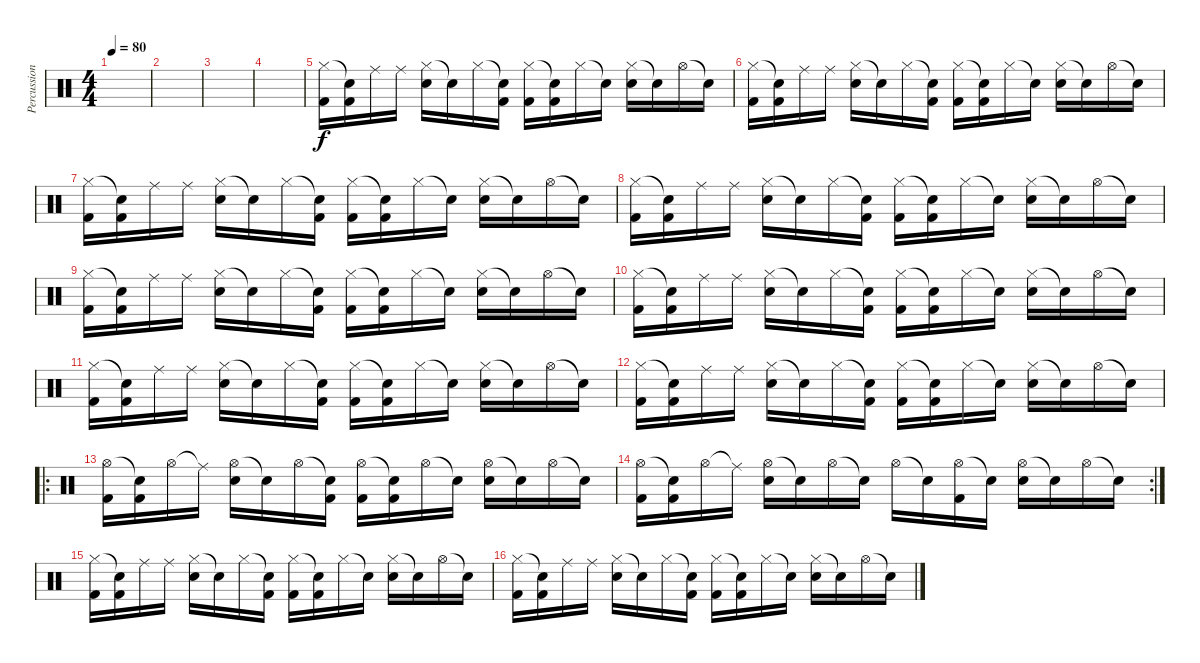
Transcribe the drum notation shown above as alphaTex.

\track ("Percussion" "Percussion") {instrument percussion}
\staff {score}
\articulation defaults
\ts (4 4)
\tempo 80
\clef neutral
\ks c
|
|
|
|
("Hi-Hat (closed)" "Kick (hit) 2").16 ("Snare (hit)"{t} "Kick (hit) 2").16 "Ride (middle)".16 "Ride (middle)".16 ("Hi-Hat (closed)" "Electric Snare (hit)").16 "Snare (hit)"{t}.16 "Hi-Hat (closed)".16 ("Snare (hit)"{t} "Kick (hit) 2").16 ("Hi-Hat (closed)" "Kick (hit) 2").16 ("Snare (hit)"{t} "Kick (hit) 2").16 "Hi-Hat (closed)".16 "Snare (hit)"{t}.16 ("Hi-Hat (closed)" "Electric Snare (hit)").16 "Snare (hit)"{t}.16 "Hi-Hat (open)".16 "Snare (hit)"{t}.16 |
("Hi-Hat (closed)" "Kick (hit) 2").16 ("Snare (hit)"{t} "Kick (hit) 2").16 "Ride (middle)".16 "Ride (middle)".16 ("Hi-Hat (closed)" "Electric Snare (hit)").16 "Snare (hit)"{t}.16 "Hi-Hat (closed)".16 ("Snare (hit)"{t} "Kick (hit) 2").16 ("Hi-Hat (closed)" "Kick (hit) 2").16 ("Snare (hit)"{t} "Kick (hit) 2").16 "Hi-Hat (closed)".16 "Snare (hit)"{t}.16 ("Hi-Hat (closed)" "Electric Snare (hit)").16 "Snare (hit)"{t}.16 "Hi-Hat (open)".16 "Snare (hit)"{t}.16 |
("Hi-Hat (closed)" "Kick (hit) 2").16 ("Snare (hit)"{t} "Kick (hit) 2").16 "Ride (middle)".16 "Ride (middle)".16 ("Hi-Hat (closed)" "Electric Snare (hit)").16 "Snare (hit)"{t}.16 "Hi-Hat (closed)".16 ("Snare (hit)"{t} "Kick (hit) 2").16 ("Hi-Hat (closed)" "Kick (hit) 2").16 ("Snare (hit)"{t} "Kick (hit) 2").16 "Hi-Hat (closed)".16 "Snare (hit)"{t}.16 ("Hi-Hat (closed)" "Electric Snare (hit)").16 "Snare (hit)"{t}.16 "Hi-Hat (open)".16 "Snare (hit)"{t}.16 |
("Hi-Hat (closed)" "Kick (hit) 2").16 ("Snare (hit)"{t} "Kick (hit) 2").16 "Ride (middle)".16 "Ride (middle)".16 ("Hi-Hat (closed)" "Electric Snare (hit)").16 "Snare (hit)"{t}.16 "Hi-Hat (closed)".16 ("Snare (hit)"{t} "Kick (hit) 2").16 ("Hi-Hat (closed)" "Kick (hit) 2").16 ("Snare (hit)"{t} "Kick (hit) 2").16 "Hi-Hat (closed)".16 "Snare (hit)"{t}.16 ("Hi-Hat (closed)" "Electric Snare (hit)").16 "Snare (hit)"{t}.16 "Hi-Hat (open)".16 "Snare (hit)"{t}.16 |
("Hi-Hat (closed)" "Kick (hit) 2").16 ("Snare (hit)"{t} "Kick (hit) 2").16 "Ride (middle)".16 "Ride (middle)".16 ("Hi-Hat (closed)" "Electric Snare (hit)").16 "Snare (hit)"{t}.16 "Hi-Hat (closed)".16 ("Snare (hit)"{t} "Kick (hit) 2").16 ("Hi-Hat (closed)" "Kick (hit) 2").16 ("Snare (hit)"{t} "Kick (hit) 2").16 "Hi-Hat (closed)".16 "Snare (hit)"{t}.16 ("Hi-Hat (closed)" "Electric Snare (hit)").16 "Snare (hit)"{t}.16 "Hi-Hat (open)".16 "Snare (hit)"{t}.16 |
("Hi-Hat (closed)" "Kick (hit) 2").16 ("Snare (hit)"{t} "Kick (hit) 2").16 "Ride (middle)".16 "Ride (middle)".16 ("Hi-Hat (closed)" "Electric Snare (hit)").16 "Snare (hit)"{t}.16 "Hi-Hat (closed)".16 ("Snare (hit)"{t} "Kick (hit) 2").16 ("Hi-Hat (closed)" "Kick (hit) 2").16 ("Snare (hit)"{t} "Kick (hit) 2").16 "Hi-Hat (closed)".16 "Snare (hit)"{t}.16 ("Hi-Hat (closed)" "Electric Snare (hit)").16 "Snare (hit)"{t}.16 "Hi-Hat (open)".16 "Snare (hit)"{t}.16 |
("Hi-Hat (closed)" "Kick (hit) 2").16 ("Snare (hit)"{t} "Kick (hit) 2").16 "Ride (middle)".16 "Ride (middle)".16 ("Hi-Hat (closed)" "Electric Snare (hit)").16 "Snare (hit)"{t}.16 "Hi-Hat (closed)".16 ("Snare (hit)"{t} "Kick (hit) 2").16 ("Hi-Hat (closed)" "Kick (hit) 2").16 ("Snare (hit)"{t} "Kick (hit) 2").16 "Hi-Hat (closed)".16 "Snare (hit)"{t}.16 ("Hi-Hat (closed)" "Electric Snare (hit)").16 "Snare (hit)"{t}.16 "Hi-Hat (open)".16 "Snare (hit)"{t}.16 |
("Hi-Hat (closed)" "Kick (hit) 2").16 ("Snare (hit)"{t} "Kick (hit) 2").16 "Ride (middle)".16 "Ride (middle)".16 ("Hi-Hat (closed)" "Electric Snare (hit)").16 "Snare (hit)"{t}.16 "Hi-Hat (closed)".16 ("Snare (hit)"{t} "Kick (hit) 2").16 ("Hi-Hat (closed)" "Kick (hit) 2").16 ("Snare (hit)"{t} "Kick (hit) 2").16 "Hi-Hat (closed)".16 "Snare (hit)"{t}.16 ("Hi-Hat (closed)" "Electric Snare (hit)").16 "Snare (hit)"{t}.16 "Hi-Hat (open)".16 "Snare (hit)"{t}.16 |
\ro
("Hi-Hat (open)" "Kick (hit) 2").16 ("Snare (hit)"{t} "Kick (hit) 2").16 "Hi-Hat (open)".16 "Ride (middle)"{t}.16 ("Hi-Hat (open)" "Electric Snare (hit)").16 "Snare (hit)"{t}.16 "Hi-Hat (open)".16 ("Snare (hit)"{t} "Kick (hit) 2").16 ("Hi-Hat (open)" "Kick (hit) 2").16 ("Snare (hit)"{t} "Kick (hit) 2").16 "Hi-Hat (open)".16 "Snare (hit)"{t}.16 ("Hi-Hat (open)" "Electric Snare (hit)").16 "Snare (hit)"{t}.16 "Hi-Hat (open)".16 "Snare (hit)"{t}.16 |
\rc 2
("Hi-Hat (open)" "Kick (hit) 2").16 ("Snare (hit)"{t} "Kick (hit) 2").16 "Hi-Hat (open)".16 "Ride (middle)"{t}.16 ("Hi-Hat (open)" "Electric Snare (hit)").16 "Snare (hit)"{t}.16 "Hi-Hat (open)".16 "Snare (hit)"{t}.16 "Hi-Hat (open)".16 "Snare (hit)"{t}.16 ("Hi-Hat (open)" "Kick (hit) 2").16 "Snare (hit)"{t}.16 ("Hi-Hat (open)" "Electric Snare (hit)").16 "Snare (hit)"{t}.16 "Hi-Hat (open)".16 "Snare (hit)"{t}.16 |
("Hi-Hat (closed)" "Kick (hit) 2").16 ("Snare (hit)"{t} "Kick (hit) 2").16 "Ride (middle)".16 "Ride (middle)".16 ("Hi-Hat (closed)" "Electric Snare (hit)").16 "Snare (hit)"{t}.16 "Hi-Hat (closed)".16 ("Snare (hit)"{t} "Kick (hit) 2").16 ("Hi-Hat (closed)" "Kick (hit) 2").16 ("Snare (hit)"{t} "Kick (hit) 2").16 "Hi-Hat (closed)".16 "Snare (hit)"{t}.16 ("Hi-Hat (closed)" "Electric Snare (hit)").16 "Snare (hit)"{t}.16 "Hi-Hat (open)".16 "Snare (hit)"{t}.16 |
("Hi-Hat (closed)" "Kick (hit) 2").16 ("Snare (hit)"{t} "Kick (hit) 2").16 "Ride (middle)".16 "Ride (middle)".16 ("Hi-Hat (closed)" "Electric Snare (hit)").16 "Snare (hit)"{t}.16 "Hi-Hat (closed)".16 ("Snare (hit)"{t} "Kick (hit) 2").16 ("Hi-Hat (closed)" "Kick (hit) 2").16 ("Snare (hit)"{t} "Kick (hit) 2").16 "Hi-Hat (closed)".16 "Snare (hit)"{t}.16 ("Hi-Hat (closed)" "Electric Snare (hit)").16 "Snare (hit)"{t}.16 "Hi-Hat (open)".16 "Snare (hit)"{t}.16
